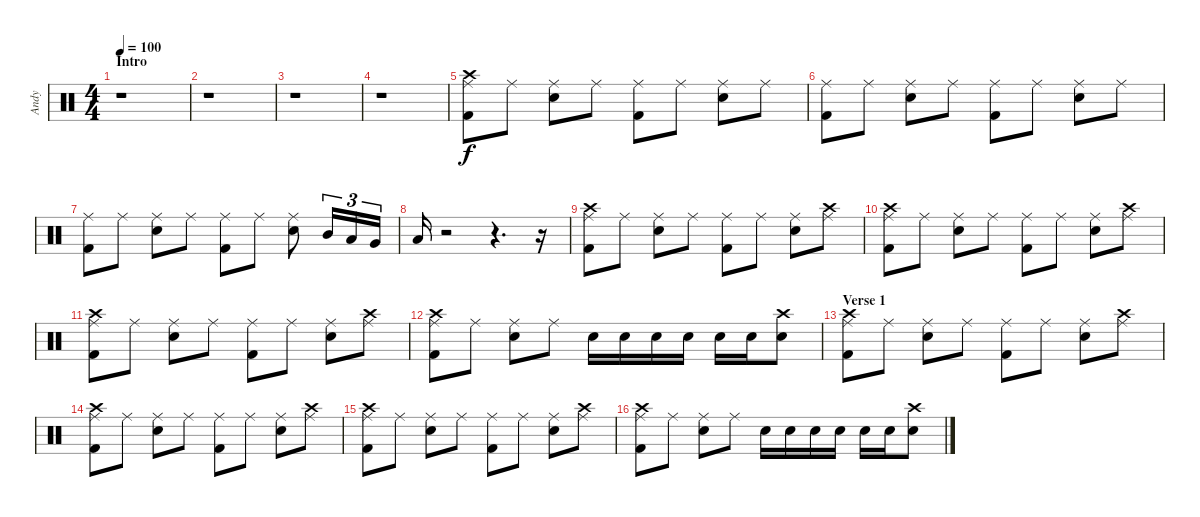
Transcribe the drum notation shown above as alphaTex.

\track ("Andy" "Andy") {instrument percussion}
\staff {score}
\articulation defaults
\ts (4 4)
\section ("" "Intro")
\tempo 100
\clef neutral
\ks c
r.1{dy f} |
r.1 |
r.1 |
r.1 |
("Crash high (hit)" "Ride (middle)" "Kick (hit) 2").8 "Ride (middle)".8 ("Ride (middle)" "Snare (hit) 2").8 "Ride (middle)".8 ("Ride (middle)" "Kick (hit) 2").8 "Ride (middle)".8 ("Ride (middle)" "Snare (hit) 2").8 "Ride (middle)".8 |
("Ride (middle)" "Kick (hit) 2").8 "Ride (middle)".8 ("Ride (middle)" "Snare (hit) 2").8 "Ride (middle)".8 ("Ride (middle)" "Kick (hit) 2").8 "Ride (middle)".8 ("Ride (middle)" "Snare (hit) 2").8 "Ride (middle)".8 |
("Ride (middle)" "Kick (hit) 2").8 "Ride (middle)".8 ("Ride (middle)" "Snare (hit) 2").8 "Ride (middle)".8 ("Ride (middle)" "Kick (hit) 2").8 "Ride (middle)".8 ("Ride (middle)" "Snare (hit) 2").8 "Mid Tom (hit)".16{tu (3 2)} "Low Tom (hit)".16{tu (3 2)} "Very Low Tom (hit)".16{tu (3 2)} |
"Low Floor Tom (hit)".16 r.2 r.4{d} r.16 |
("Crash high (hit)" "Ride (middle)" "Kick (hit) 2").8 "Ride (middle)".8 ("Ride (middle)" "Snare (hit) 2").8 "Ride (middle)".8 ("Ride (middle)" "Kick (hit) 2").8 "Ride (middle)".8 ("Ride (middle)" "Snare (hit) 2").8 ("Crash high (hit)" "Ride (middle)").8 |
("Crash high (hit)" "Ride (middle)" "Kick (hit) 2").8 "Ride (middle)".8 ("Ride (middle)" "Snare (hit) 2").8 "Ride (middle)".8 ("Ride (middle)" "Kick (hit) 2").8 "Ride (middle)".8 ("Ride (middle)" "Snare (hit) 2").8 ("Crash high (hit)" "Ride (middle)").8 |
("Crash high (hit)" "Ride (middle)" "Kick (hit) 2").8 "Ride (middle)".8 ("Ride (middle)" "Snare (hit) 2").8 "Ride (middle)".8 ("Ride (middle)" "Kick (hit) 2").8 "Ride (middle)".8 ("Ride (middle)" "Snare (hit) 2").8 ("Crash high (hit)" "Ride (middle)").8 |
("Crash high (hit)" "Ride (middle)" "Kick (hit) 2").8 "Ride (middle)".8 ("Ride (middle)" "Snare (hit) 2").8 "Ride (middle)".8 "Snare (hit) 2".16 "Snare (hit) 2".16 "Snare (hit) 2".16 "Snare (hit) 2".16 "Snare (hit) 2".16 "Snare (hit) 2".16 ("Crash high (hit)" "Snare (hit) 2").8 |
\section ("" "Verse 1")
("Crash high (hit)" "Ride (middle)" "Kick (hit) 2").8 "Ride (middle)".8 ("Ride (middle)" "Snare (hit) 2").8 "Ride (middle)".8 ("Ride (middle)" "Kick (hit) 2").8 "Ride (middle)".8 ("Ride (middle)" "Snare (hit) 2").8 ("Crash high (hit)" "Ride (middle)").8 |
("Crash high (hit)" "Ride (middle)" "Kick (hit) 2").8 "Ride (middle)".8 ("Ride (middle)" "Snare (hit) 2").8 "Ride (middle)".8 ("Ride (middle)" "Kick (hit) 2").8 "Ride (middle)".8 ("Ride (middle)" "Snare (hit) 2").8 ("Crash high (hit)" "Ride (middle)").8 |
("Crash high (hit)" "Ride (middle)" "Kick (hit) 2").8 "Ride (middle)".8 ("Ride (middle)" "Snare (hit) 2").8 "Ride (middle)".8 ("Ride (middle)" "Kick (hit) 2").8 "Ride (middle)".8 ("Ride (middle)" "Snare (hit) 2").8 ("Crash high (hit)" "Ride (middle)").8 |
("Crash high (hit)" "Ride (middle)" "Kick (hit) 2").8 "Ride (middle)".8 ("Ride (middle)" "Snare (hit) 2").8 "Ride (middle)".8 "Snare (hit) 2".16 "Snare (hit) 2".16 "Snare (hit) 2".16 "Snare (hit) 2".16 "Snare (hit) 2".16 "Snare (hit) 2".16 ("Crash high (hit)" "Snare (hit) 2").8
